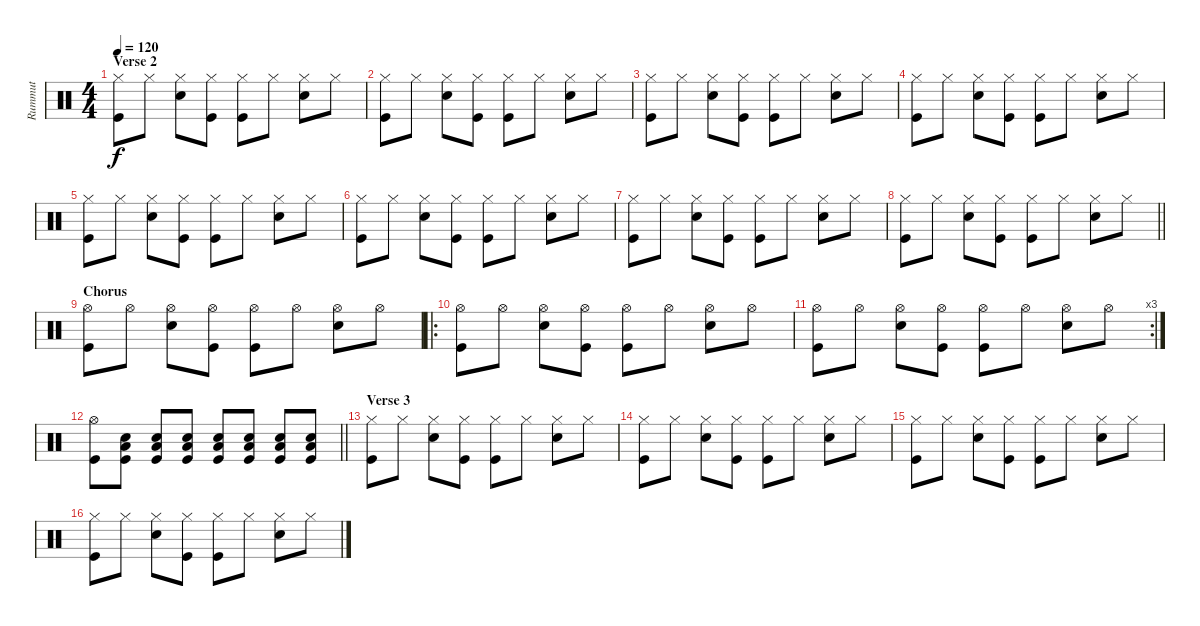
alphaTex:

\track ("Rummut" "Rummut") {instrument percussion}
\staff {score}
\articulation defaults
\ts (4 4)
\section ("" "Verse 2")
\tempo 120
\clef neutral
\ks c
("Hi-Hat (closed)" "Kick (hit)").8{dy f} "Hi-Hat (closed)".8 ("Hi-Hat (closed)" "Snare (hit) 2").8 ("Hi-Hat (closed)" "Kick (hit)").8 ("Hi-Hat (closed)" "Kick (hit)").8 "Hi-Hat (closed)".8 ("Hi-Hat (closed)" "Snare (hit) 2").8 "Hi-Hat (closed)".8 |
("Hi-Hat (closed)" "Kick (hit)").8 "Hi-Hat (closed)".8 ("Hi-Hat (closed)" "Snare (hit) 2").8 ("Hi-Hat (closed)" "Kick (hit)").8 ("Hi-Hat (closed)" "Kick (hit)").8 "Hi-Hat (closed)".8 ("Hi-Hat (closed)" "Snare (hit) 2").8 "Hi-Hat (closed)".8 |
("Hi-Hat (closed)" "Kick (hit)").8 "Hi-Hat (closed)".8 ("Hi-Hat (closed)" "Snare (hit) 2").8 ("Hi-Hat (closed)" "Kick (hit)").8 ("Hi-Hat (closed)" "Kick (hit)").8 "Hi-Hat (closed)".8 ("Hi-Hat (closed)" "Snare (hit) 2").8 "Hi-Hat (closed)".8 |
("Hi-Hat (closed)" "Kick (hit)").8 "Hi-Hat (closed)".8 ("Hi-Hat (closed)" "Snare (hit) 2").8 ("Hi-Hat (closed)" "Kick (hit)").8 ("Hi-Hat (closed)" "Kick (hit)").8 "Hi-Hat (closed)".8 ("Hi-Hat (closed)" "Snare (hit) 2").8 "Hi-Hat (closed)".8 |
("Hi-Hat (closed)" "Kick (hit)").8 "Hi-Hat (closed)".8 ("Hi-Hat (closed)" "Snare (hit) 2").8 ("Hi-Hat (closed)" "Kick (hit)").8 ("Hi-Hat (closed)" "Kick (hit)").8 "Hi-Hat (closed)".8 ("Hi-Hat (closed)" "Snare (hit) 2").8 "Hi-Hat (closed)".8 |
("Hi-Hat (closed)" "Kick (hit)").8 "Hi-Hat (closed)".8 ("Hi-Hat (closed)" "Snare (hit) 2").8 ("Hi-Hat (closed)" "Kick (hit)").8 ("Hi-Hat (closed)" "Kick (hit)").8 "Hi-Hat (closed)".8 ("Hi-Hat (closed)" "Snare (hit) 2").8 "Hi-Hat (closed)".8 |
("Hi-Hat (closed)" "Kick (hit)").8 "Hi-Hat (closed)".8 ("Hi-Hat (closed)" "Snare (hit) 2").8 ("Hi-Hat (closed)" "Kick (hit)").8 ("Hi-Hat (closed)" "Kick (hit)").8 "Hi-Hat (closed)".8 ("Hi-Hat (closed)" "Snare (hit) 2").8 "Hi-Hat (closed)".8 |
\barLineRight lightlight
("Hi-Hat (closed)" "Kick (hit)").8 "Hi-Hat (closed)".8 ("Hi-Hat (closed)" "Snare (hit) 2").8 ("Hi-Hat (closed)" "Kick (hit)").8 ("Hi-Hat (closed)" "Kick (hit)").8 "Hi-Hat (closed)".8 ("Hi-Hat (closed)" "Snare (hit) 2").8 "Hi-Hat (closed)".8 |
\section ("" "Chorus")
("Hi-Hat (open)" "Kick (hit)").8 "Hi-Hat (open)".8 ("Hi-Hat (open)" "Snare (hit) 2").8 ("Hi-Hat (open)" "Kick (hit)").8 ("Hi-Hat (open)" "Kick (hit)").8 "Hi-Hat (open)".8 ("Hi-Hat (open)" "Snare (hit) 2").8 "Hi-Hat (open)".8 |
\ro
("Hi-Hat (open)" "Kick (hit)").8 "Hi-Hat (open)".8 ("Hi-Hat (open)" "Snare (hit) 2").8 ("Hi-Hat (open)" "Kick (hit)").8 ("Hi-Hat (open)" "Kick (hit)").8 "Hi-Hat (open)".8 ("Hi-Hat (open)" "Snare (hit) 2").8 "Hi-Hat (open)".8 |
\rc 3
("Hi-Hat (open)" "Kick (hit)").8 "Hi-Hat (open)".8 ("Hi-Hat (open)" "Snare (hit) 2").8 ("Hi-Hat (open)" "Kick (hit)").8 ("Hi-Hat (open)" "Kick (hit)").8 "Hi-Hat (open)".8 ("Hi-Hat (open)" "Snare (hit) 2").8 "Hi-Hat (open)".8 |
\barLineRight lightlight
("Hi-Hat (open)" "Kick (hit)").8 ("Snare (hit) 2" "Kick (hit)" "Low Floor Tom (hit)").8 ("Snare (hit) 2" "Kick (hit)" "Low Floor Tom (hit)").8 ("Snare (hit) 2" "Kick (hit)" "Low Floor Tom (hit)").8 ("Snare (hit) 2" "Kick (hit)" "Low Floor Tom (hit)").8 ("Snare (hit) 2" "Kick (hit)" "Low Floor Tom (hit)").8 ("Snare (hit) 2" "Kick (hit)" "Low Floor Tom (hit)").8 ("Snare (hit) 2" "Kick (hit)" "Low Floor Tom (hit)").8 |
\section ("" "Verse 3")
("Hi-Hat (closed)" "Kick (hit)").8 "Hi-Hat (closed)".8 ("Hi-Hat (closed)" "Snare (hit) 2").8 ("Hi-Hat (closed)" "Kick (hit)").8 ("Hi-Hat (closed)" "Kick (hit)").8 "Hi-Hat (closed)".8 ("Hi-Hat (closed)" "Snare (hit) 2").8 "Hi-Hat (closed)".8 |
("Hi-Hat (closed)" "Kick (hit)").8 "Hi-Hat (closed)".8 ("Hi-Hat (closed)" "Snare (hit) 2").8 ("Hi-Hat (closed)" "Kick (hit)").8 ("Hi-Hat (closed)" "Kick (hit)").8 "Hi-Hat (closed)".8 ("Hi-Hat (closed)" "Snare (hit) 2").8 "Hi-Hat (closed)".8 |
("Hi-Hat (closed)" "Kick (hit)").8 "Hi-Hat (closed)".8 ("Hi-Hat (closed)" "Snare (hit) 2").8 ("Hi-Hat (closed)" "Kick (hit)").8 ("Hi-Hat (closed)" "Kick (hit)").8 "Hi-Hat (closed)".8 ("Hi-Hat (closed)" "Snare (hit) 2").8 "Hi-Hat (closed)".8 |
("Hi-Hat (closed)" "Kick (hit)").8 "Hi-Hat (closed)".8 ("Hi-Hat (closed)" "Snare (hit) 2").8 ("Hi-Hat (closed)" "Kick (hit)").8 ("Hi-Hat (closed)" "Kick (hit)").8 "Hi-Hat (closed)".8 ("Hi-Hat (closed)" "Snare (hit) 2").8 "Hi-Hat (closed)".8
